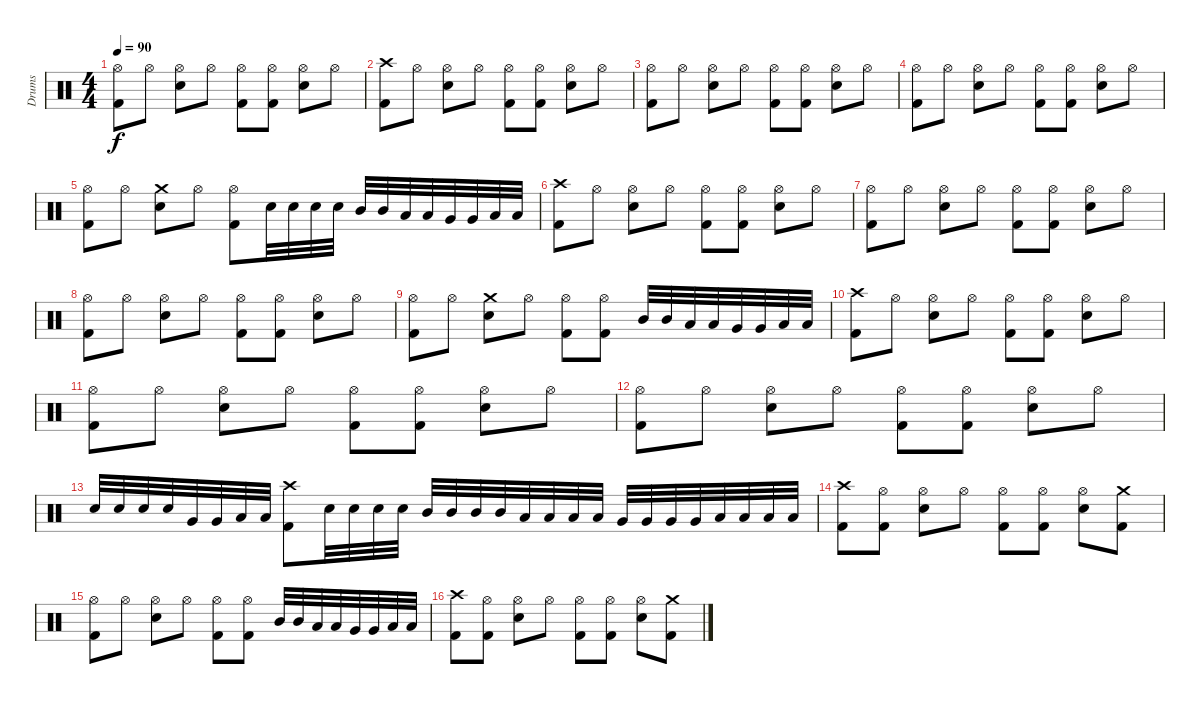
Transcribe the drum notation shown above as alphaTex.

\track ("Drums" "Drums") {instrument percussion}
\staff {score}
\articulation defaults
\ts (4 4)
\tempo 90
\clef neutral
\ks c
("Hi-Hat (open)" "Kick (hit) 2").8{dy f} "Hi-Hat (open)".8 ("Hi-Hat (open)" "Electric Snare (hit)").8 "Hi-Hat (open)".8 ("Hi-Hat (open)" "Kick (hit) 2").8 ("Hi-Hat (open)" "Kick (hit) 2").8 ("Hi-Hat (open)" "Electric Snare (hit)").8 "Hi-Hat (open)".8 |
("Crash high (hit)" "Kick (hit) 2").8 "Hi-Hat (open)".8 ("Hi-Hat (open)" "Electric Snare (hit)").8 "Hi-Hat (open)".8 ("Hi-Hat (open)" "Kick (hit) 2").8 ("Hi-Hat (open)" "Kick (hit) 2").8 ("Hi-Hat (open)" "Electric Snare (hit)").8 "Hi-Hat (open)".8 |
("Hi-Hat (open)" "Kick (hit) 2").8 "Hi-Hat (open)".8 ("Hi-Hat (open)" "Electric Snare (hit)").8 "Hi-Hat (open)".8 ("Hi-Hat (open)" "Kick (hit) 2").8 ("Hi-Hat (open)" "Kick (hit) 2").8 ("Hi-Hat (open)" "Electric Snare (hit)").8 "Hi-Hat (open)".8 |
("Hi-Hat (open)" "Kick (hit) 2").8 "Hi-Hat (open)".8 ("Hi-Hat (open)" "Electric Snare (hit)").8 "Hi-Hat (open)".8 ("Hi-Hat (open)" "Kick (hit) 2").8 ("Hi-Hat (open)" "Kick (hit) 2").8 ("Hi-Hat (open)" "Electric Snare (hit)").8 "Hi-Hat (open)".8 |
("Hi-Hat (open)" "Kick (hit) 2").8 "Hi-Hat (open)".8 ("Crash medium (hit)" "Electric Snare (hit)").8 "Hi-Hat (open)".8 ("Hi-Hat (open)" "Kick (hit) 2").8 "Electric Snare (hit)".32 "Electric Snare (hit)".32 "Electric Snare (hit)".32 "Electric Snare (hit)".32 "Mid Tom (hit)".32 "Mid Tom (hit)".32 "Low Tom (hit)".32 "Low Tom (hit)".32 "Very Low Tom (hit)".32 "Very Low Tom (hit)".32 "Low Floor Tom (hit)".32 "Low Floor Tom (hit)".32 |
("Crash high (hit)" "Kick (hit) 2").8 "Hi-Hat (open)".8 ("Hi-Hat (open)" "Electric Snare (hit)").8 "Hi-Hat (open)".8 ("Hi-Hat (open)" "Kick (hit) 2").8 ("Hi-Hat (open)" "Kick (hit) 2").8 ("Hi-Hat (open)" "Electric Snare (hit)").8 "Hi-Hat (open)".8 |
("Hi-Hat (open)" "Kick (hit) 2").8 "Hi-Hat (open)".8 ("Hi-Hat (open)" "Electric Snare (hit)").8 "Hi-Hat (open)".8 ("Hi-Hat (open)" "Kick (hit) 2").8 ("Hi-Hat (open)" "Kick (hit) 2").8 ("Hi-Hat (open)" "Electric Snare (hit)").8 "Hi-Hat (open)".8 |
("Hi-Hat (open)" "Kick (hit) 2").8 "Hi-Hat (open)".8 ("Hi-Hat (open)" "Electric Snare (hit)").8 "Hi-Hat (open)".8 ("Hi-Hat (open)" "Kick (hit) 2").8 ("Hi-Hat (open)" "Kick (hit) 2").8 ("Hi-Hat (open)" "Electric Snare (hit)").8 "Hi-Hat (open)".8 |
("Hi-Hat (open)" "Kick (hit) 2").8 "Hi-Hat (open)".8 ("Crash medium (hit)" "Electric Snare (hit)").8 "Hi-Hat (open)".8 ("Hi-Hat (open)" "Kick (hit) 2").8 ("Hi-Hat (open)" "Kick (hit) 2").8 "Mid Tom (hit)".32 "Mid Tom (hit)".32 "Low Tom (hit)".32 "Low Tom (hit)".32 "Very Low Tom (hit)".32 "Very Low Tom (hit)".32 "Low Floor Tom (hit)".32 "Low Floor Tom (hit)".32 |
("Crash high (hit)" "Kick (hit) 2").8 "Hi-Hat (open)".8 ("Hi-Hat (open)" "Electric Snare (hit)").8 "Hi-Hat (open)".8 ("Hi-Hat (open)" "Kick (hit) 2").8 ("Hi-Hat (open)" "Kick (hit) 2").8 ("Hi-Hat (open)" "Electric Snare (hit)").8 "Hi-Hat (open)".8 |
("Hi-Hat (open)" "Kick (hit) 2").8 "Hi-Hat (open)".8 ("Hi-Hat (open)" "Electric Snare (hit)").8 "Hi-Hat (open)".8 ("Hi-Hat (open)" "Kick (hit) 2").8 ("Hi-Hat (open)" "Kick (hit) 2").8 ("Hi-Hat (open)" "Electric Snare (hit)").8 "Hi-Hat (open)".8 |
("Hi-Hat (open)" "Kick (hit) 2").8 "Hi-Hat (open)".8 ("Hi-Hat (open)" "Electric Snare (hit)").8 "Hi-Hat (open)".8 ("Hi-Hat (open)" "Kick (hit) 2").8 ("Hi-Hat (open)" "Kick (hit) 2").8 ("Hi-Hat (open)" "Electric Snare (hit)").8 "Hi-Hat (open)".8 |
"Electric Snare (hit)".32 "Electric Snare (hit)".32 "Electric Snare (hit)".32 "Electric Snare (hit)".32 "Very Low Tom (hit)".32 "Very Low Tom (hit)".32 "Low Floor Tom (hit)".32 "Low Floor Tom (hit)".32 ("Crash high (hit)" "Kick (hit) 2").8 "Electric Snare (hit)".32 "Electric Snare (hit)".32 "Electric Snare (hit)".32 "Electric Snare (hit)".32 "Mid Tom (hit)".32 "Mid Tom (hit)".32 "Mid Tom (hit)".32 "Mid Tom (hit)".32 "Low Tom (hit)".32 "Low Tom (hit)".32 "Low Tom (hit)".32 "Low Tom (hit)".32 "Very Low Tom (hit)".32 "Very Low Tom (hit)".32 "Very Low Tom (hit)".32 "Very Low Tom (hit)".32 "Low Floor Tom (hit)".32 "Low Floor Tom (hit)".32 "Low Floor Tom (hit)".32 "Low Floor Tom (hit)".32 |
("Crash high (hit)" "Kick (hit) 2").8 ("Hi-Hat (open)" "Kick (hit) 2").8 ("Hi-Hat (open)" "Electric Snare (hit)").8 "Hi-Hat (open)".8 ("Hi-Hat (open)" "Kick (hit) 2").8 ("Hi-Hat (open)" "Kick (hit) 2").8 ("Hi-Hat (open)" "Electric Snare (hit)").8 ("Crash medium (hit)" "Kick (hit) 2").8 |
("Hi-Hat (open)" "Kick (hit) 2").8 "Hi-Hat (open)".8 ("Hi-Hat (open)" "Electric Snare (hit)").8 "Hi-Hat (open)".8 ("Hi-Hat (open)" "Kick (hit) 2").8 ("Hi-Hat (open)" "Kick (hit) 2").8 "Mid Tom (hit)".32 "Mid Tom (hit)".32 "Low Tom (hit)".32 "Low Tom (hit)".32 "Very Low Tom (hit)".32 "Very Low Tom (hit)".32 "Low Floor Tom (hit)".32 "Low Floor Tom (hit)".32 |
("Crash high (hit)" "Kick (hit) 2").8 ("Hi-Hat (open)" "Kick (hit) 2").8 ("Hi-Hat (open)" "Electric Snare (hit)").8 "Hi-Hat (open)".8 ("Hi-Hat (open)" "Kick (hit) 2").8 ("Hi-Hat (open)" "Kick (hit) 2").8 ("Hi-Hat (open)" "Electric Snare (hit)").8 ("Crash medium (hit)" "Kick (hit) 2").8
